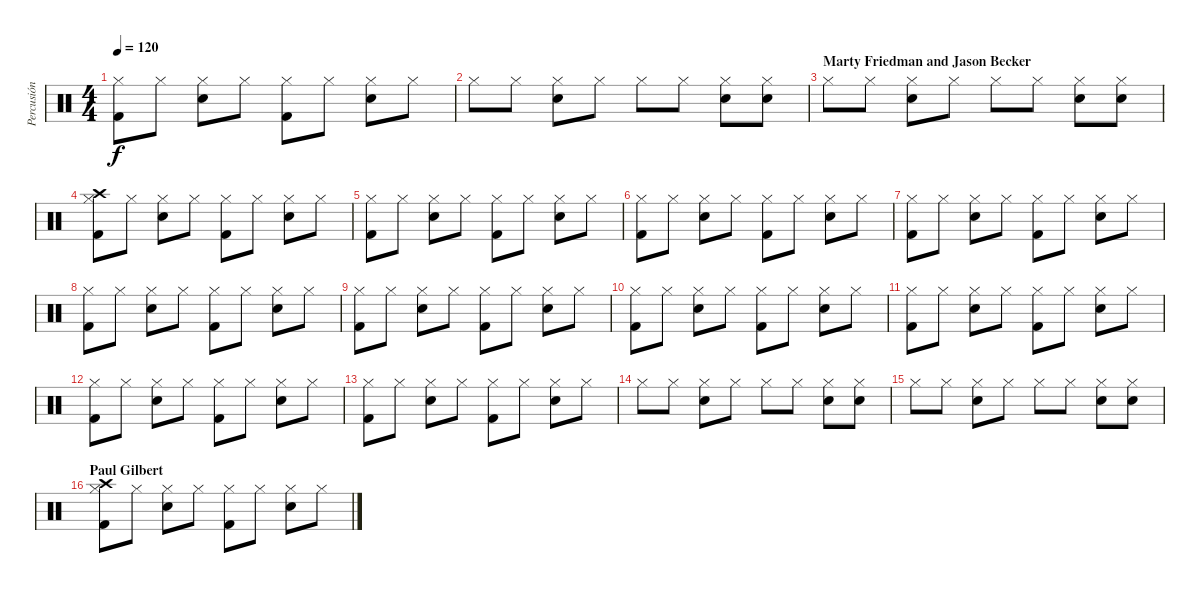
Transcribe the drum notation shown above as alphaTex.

\track ("Percusión" "Percusión") {instrument percussion}
\staff {score}
\articulation defaults
\ts (4 4)
\tempo 120
\clef neutral
\ks c
("Kick (hit) 2" "Hi-Hat (closed)").8{dy f} "Hi-Hat (closed)".8 ("Electric Snare (hit)" "Hi-Hat (closed)").8 "Hi-Hat (closed)".8 ("Kick (hit) 2" "Hi-Hat (closed)").8 "Hi-Hat (closed)".8 ("Electric Snare (hit)" "Hi-Hat (closed)").8 "Hi-Hat (closed)".8 |
"Hi-Hat (closed)".8 "Hi-Hat (closed)".8 ("Electric Snare (hit)" "Hi-Hat (closed)").8 "Hi-Hat (closed)".8 "Hi-Hat (closed)".8 "Hi-Hat (closed)".8 ("Electric Snare (hit)" "Hi-Hat (closed)").8 ("Electric Snare (hit)" "Hi-Hat (closed)").8 |
\section ("" "Marty Friedman and Jason Becker")
"Hi-Hat (closed)".8 "Hi-Hat (closed)".8 ("Electric Snare (hit)" "Hi-Hat (closed)").8 "Hi-Hat (closed)".8 "Hi-Hat (closed)".8 "Hi-Hat (closed)".8 ("Electric Snare (hit)" "Hi-Hat (closed)").8 ("Electric Snare (hit)" "Hi-Hat (closed)").8 |
("Kick (hit) 2" "Hi-Hat (closed)" "Crash high (hit)").8 "Hi-Hat (closed)".8 ("Electric Snare (hit)" "Hi-Hat (closed)").8 "Hi-Hat (closed)".8 ("Kick (hit) 2" "Hi-Hat (closed)").8 "Hi-Hat (closed)".8 ("Electric Snare (hit)" "Hi-Hat (closed)").8 "Hi-Hat (closed)".8 |
("Kick (hit) 2" "Hi-Hat (closed)").8 "Hi-Hat (closed)".8 ("Electric Snare (hit)" "Hi-Hat (closed)").8 "Hi-Hat (closed)".8 ("Kick (hit) 2" "Hi-Hat (closed)").8 "Hi-Hat (closed)".8 ("Electric Snare (hit)" "Hi-Hat (closed)").8 "Hi-Hat (closed)".8 |
("Kick (hit) 2" "Hi-Hat (closed)").8 "Hi-Hat (closed)".8 ("Electric Snare (hit)" "Hi-Hat (closed)").8 "Hi-Hat (closed)".8 ("Kick (hit) 2" "Hi-Hat (closed)").8 "Hi-Hat (closed)".8 ("Electric Snare (hit)" "Hi-Hat (closed)").8 "Hi-Hat (closed)".8 |
("Kick (hit) 2" "Hi-Hat (closed)").8 "Hi-Hat (closed)".8 ("Electric Snare (hit)" "Hi-Hat (closed)").8 "Hi-Hat (closed)".8 ("Kick (hit) 2" "Hi-Hat (closed)").8 "Hi-Hat (closed)".8 ("Electric Snare (hit)" "Hi-Hat (closed)").8 "Hi-Hat (closed)".8 |
("Kick (hit) 2" "Hi-Hat (closed)").8 "Hi-Hat (closed)".8 ("Electric Snare (hit)" "Hi-Hat (closed)").8 "Hi-Hat (closed)".8 ("Kick (hit) 2" "Hi-Hat (closed)").8 "Hi-Hat (closed)".8 ("Electric Snare (hit)" "Hi-Hat (closed)").8 "Hi-Hat (closed)".8 |
("Kick (hit) 2" "Hi-Hat (closed)").8 "Hi-Hat (closed)".8 ("Electric Snare (hit)" "Hi-Hat (closed)").8 "Hi-Hat (closed)".8 ("Kick (hit) 2" "Hi-Hat (closed)").8 "Hi-Hat (closed)".8 ("Electric Snare (hit)" "Hi-Hat (closed)").8 "Hi-Hat (closed)".8 |
("Kick (hit) 2" "Hi-Hat (closed)").8 "Hi-Hat (closed)".8 ("Electric Snare (hit)" "Hi-Hat (closed)").8 "Hi-Hat (closed)".8 ("Kick (hit) 2" "Hi-Hat (closed)").8 "Hi-Hat (closed)".8 ("Electric Snare (hit)" "Hi-Hat (closed)").8 "Hi-Hat (closed)".8 |
("Kick (hit) 2" "Hi-Hat (closed)").8 "Hi-Hat (closed)".8 ("Electric Snare (hit)" "Hi-Hat (closed)").8 "Hi-Hat (closed)".8 ("Kick (hit) 2" "Hi-Hat (closed)").8 "Hi-Hat (closed)".8 ("Electric Snare (hit)" "Hi-Hat (closed)").8 "Hi-Hat (closed)".8 |
("Kick (hit) 2" "Hi-Hat (closed)").8 "Hi-Hat (closed)".8 ("Electric Snare (hit)" "Hi-Hat (closed)").8 "Hi-Hat (closed)".8 ("Kick (hit) 2" "Hi-Hat (closed)").8 "Hi-Hat (closed)".8 ("Electric Snare (hit)" "Hi-Hat (closed)").8 "Hi-Hat (closed)".8 |
("Kick (hit) 2" "Hi-Hat (closed)").8 "Hi-Hat (closed)".8 ("Electric Snare (hit)" "Hi-Hat (closed)").8 "Hi-Hat (closed)".8 ("Kick (hit) 2" "Hi-Hat (closed)").8 "Hi-Hat (closed)".8 ("Electric Snare (hit)" "Hi-Hat (closed)").8 "Hi-Hat (closed)".8 |
"Hi-Hat (closed)".8 "Hi-Hat (closed)".8 ("Electric Snare (hit)" "Hi-Hat (closed)").8 "Hi-Hat (closed)".8 "Hi-Hat (closed)".8 "Hi-Hat (closed)".8 ("Electric Snare (hit)" "Hi-Hat (closed)").8 ("Electric Snare (hit)" "Hi-Hat (closed)").8 |
"Hi-Hat (closed)".8 "Hi-Hat (closed)".8 ("Electric Snare (hit)" "Hi-Hat (closed)").8 "Hi-Hat (closed)".8 "Hi-Hat (closed)".8 "Hi-Hat (closed)".8 ("Electric Snare (hit)" "Hi-Hat (closed)").8 ("Electric Snare (hit)" "Hi-Hat (closed)").8 |
\section ("" "Paul Gilbert")
("Kick (hit) 2" "Hi-Hat (closed)" "Crash high (hit)").8 "Hi-Hat (closed)".8 ("Electric Snare (hit)" "Hi-Hat (closed)").8 "Hi-Hat (closed)".8 ("Kick (hit) 2" "Hi-Hat (closed)").8 "Hi-Hat (closed)".8 ("Electric Snare (hit)" "Hi-Hat (closed)").8 "Hi-Hat (closed)".8
